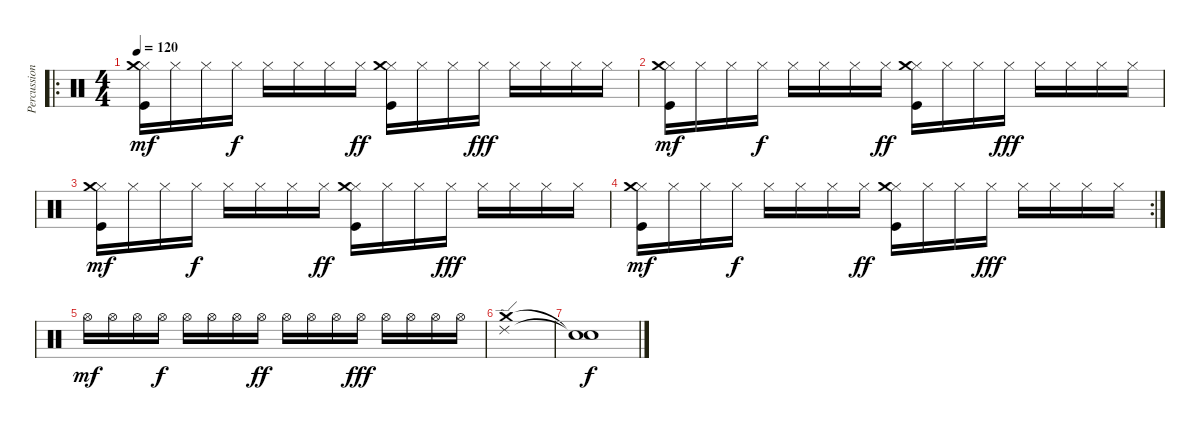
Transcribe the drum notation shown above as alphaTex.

\track ("Percussions" "Percussion") {instrument percussion}
\staff {score}
\articulation defaults
\ro
\ts (4 4)
\tempo 120
\clef neutral
\ks c
("Hi-Hat (closed)" "Kick (hit)" "Crash medium (hit)").16{dy mf} "Hi-Hat (closed)".16 "Hi-Hat (closed)".16 "Hi-Hat (closed)".16{dy f} "Hi-Hat (closed)".16 "Hi-Hat (closed)".16 "Hi-Hat (closed)".16 "Hi-Hat (closed)".16{dy ff} ("Hi-Hat (closed)" "Kick (hit)" "Crash medium (hit)").16 "Hi-Hat (closed)".16 "Hi-Hat (closed)".16 "Hi-Hat (closed)".16{dy fff} "Hi-Hat (closed)".16 "Hi-Hat (closed)".16 "Hi-Hat (closed)".16 "Hi-Hat (closed)".16 |
("Hi-Hat (closed)" "Kick (hit)" "Crash medium (hit)").16{dy mf} "Hi-Hat (closed)".16 "Hi-Hat (closed)".16 "Hi-Hat (closed)".16{dy f} "Hi-Hat (closed)".16 "Hi-Hat (closed)".16 "Hi-Hat (closed)".16 "Hi-Hat (closed)".16{dy ff} ("Hi-Hat (closed)" "Kick (hit)" "Crash medium (hit)").16 "Hi-Hat (closed)".16 "Hi-Hat (closed)".16 "Hi-Hat (closed)".16{dy fff} "Hi-Hat (closed)".16 "Hi-Hat (closed)".16 "Hi-Hat (closed)".16 "Hi-Hat (closed)".16 |
("Hi-Hat (closed)" "Kick (hit)" "Crash medium (hit)").16{dy mf} "Hi-Hat (closed)".16 "Hi-Hat (closed)".16 "Hi-Hat (closed)".16{dy f} "Hi-Hat (closed)".16 "Hi-Hat (closed)".16 "Hi-Hat (closed)".16 "Hi-Hat (closed)".16{dy ff} ("Hi-Hat (closed)" "Kick (hit)" "Crash medium (hit)").16 "Hi-Hat (closed)".16 "Hi-Hat (closed)".16 "Hi-Hat (closed)".16{dy fff} "Hi-Hat (closed)".16 "Hi-Hat (closed)".16 "Hi-Hat (closed)".16 "Hi-Hat (closed)".16 |
\rc 2
("Hi-Hat (closed)" "Kick (hit)" "Crash medium (hit)").16{dy mf} "Hi-Hat (closed)".16 "Hi-Hat (closed)".16 "Hi-Hat (closed)".16{dy f} "Hi-Hat (closed)".16 "Hi-Hat (closed)".16 "Hi-Hat (closed)".16 "Hi-Hat (closed)".16{dy ff} ("Hi-Hat (closed)" "Kick (hit)" "Crash medium (hit)").16 "Hi-Hat (closed)".16 "Hi-Hat (closed)".16 "Hi-Hat (closed)".16{dy fff} "Hi-Hat (closed)".16 "Hi-Hat (closed)".16 "Hi-Hat (closed)".16 "Hi-Hat (closed)".16 |
"Hi-Hat (open)".16{dy mf} "Hi-Hat (open)".16 "Hi-Hat (open)".16 "Hi-Hat (open)".16{dy f} "Hi-Hat (open)".16 "Hi-Hat (open)".16 "Hi-Hat (open)".16 "Hi-Hat (open)".16{dy ff} "Hi-Hat (open)".16 "Hi-Hat (open)".16 "Hi-Hat (open)".16 "Hi-Hat (open)".16{dy fff} "Hi-Hat (open)".16 "Hi-Hat (open)".16 "Hi-Hat (open)".16 "Hi-Hat (open)".16 |
("Ride (edge) 2" "Crash medium (hit)").1 |
("Snare (hit)"{t} "Snare (hit)"{t}).1{dy f}
